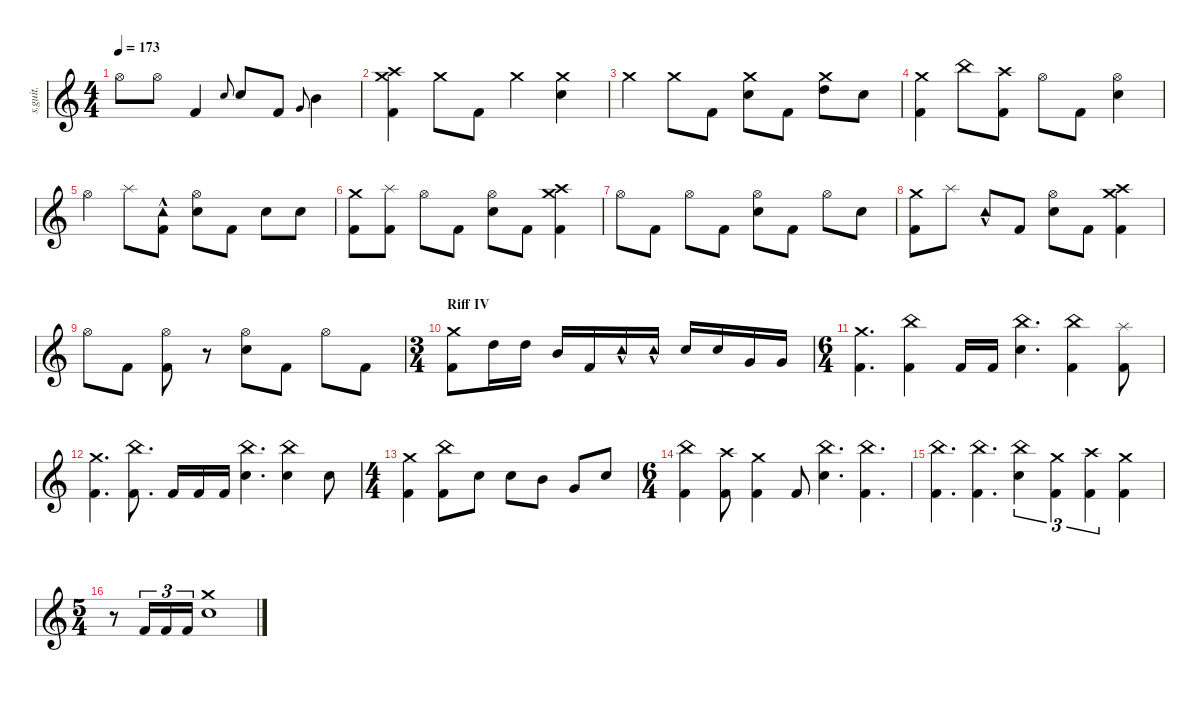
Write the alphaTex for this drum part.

\defaultSystemsLayout 4
\hideDynamics
\bracketExtendMode nobrackets
\track ("II" "s.guit.") {instrument percussion}
\staff {score}
\articulation defaults
\ts (4 4)
\tempo 173
\clef g2
\ks c "Hi-Hat (open)".8{lyrics (0 "") lyrics (1 "") lyrics (2 "") lyrics (3 "") lyrics (4 "") dy mf} "Hi-Hat (open)".8{lyrics (0 "") lyrics (1 "") lyrics (2 "") lyrics (3 "") lyrics (4 "")} "Kick (hit) 2".4{lyrics (0 "") lyrics (1 "") lyrics (2 "") lyrics (3 "") lyrics (4 "")} "Snare (hit) 2".8{lyrics (0 "") lyrics (1 "") lyrics (2 "") lyrics (3 "") lyrics (4 "") gr onbeat} "Snare (hit) 2".8{lyrics (0 "") lyrics (1 "") lyrics (2 "") lyrics (3 "") lyrics (4 "")} "Kick (hit) 2".8{lyrics (0 "") lyrics (1 "") lyrics (2 "") lyrics (3 "") lyrics (4 "")} "Very Low Tom (hit)".8{lyrics (0 "") lyrics (1 "") lyrics (2 "") lyrics (3 "") lyrics (4 "") gr onbeat} "Mid Tom (hit)".4{lyrics (0 "") lyrics (1 "") lyrics (2 "") lyrics (3 "") lyrics (4 "")}
|
("Kick (hit) 2" "Crash high (hit)" "Crash medium (hit)").4{lyrics (0 "") lyrics (1 "") lyrics (2 "") lyrics (3 "") lyrics (4 "")} "Crash medium (hit)".8{lyrics (0 "") lyrics (1 "") lyrics (2 "") lyrics (3 "") lyrics (4 "")} "Kick (hit) 2".8{lyrics (0 "") lyrics (1 "") lyrics (2 "") lyrics (3 "") lyrics (4 "")} "Crash medium (hit)".4{lyrics (0 "") lyrics (1 "") lyrics (2 "") lyrics (3 "") lyrics (4 "")} ("Snare (hit) 2" "Crash medium (hit)").4{lyrics (0 "") lyrics (1 "") lyrics (2 "") lyrics (3 "") lyrics (4 "")} |
"Crash medium (hit)".4{lyrics (0 "") lyrics (1 "") lyrics (2 "") lyrics (3 "") lyrics (4 "")} "Crash medium (hit)".8{lyrics (0 "") lyrics (1 "") lyrics (2 "") lyrics (3 "") lyrics (4 "")} "Kick (hit) 2".8{lyrics (0 "") lyrics (1 "") lyrics (2 "") lyrics (3 "") lyrics (4 "")} ("Crash medium (hit)" "Snare (hit) 2").8{lyrics (0 "") lyrics (1 "") lyrics (2 "") lyrics (3 "") lyrics (4 "")} "Kick (hit) 2".8{lyrics (0 "") lyrics (1 "") lyrics (2 "") lyrics (3 "") lyrics (4 "")} ("Crash medium (hit)" "High Tom (hit)").8{lyrics (0 "") lyrics (1 "") lyrics (2 "") lyrics (3 "") lyrics (4 "")} "Snare (hit) 2".8{lyrics (0 "") lyrics (1 "") lyrics (2 "") lyrics (3 "") lyrics (4 "")} |
("Kick (hit) 2" "Crash medium (hit)").4{lyrics (0 "") lyrics (1 "") lyrics (2 "") lyrics (3 "") lyrics (4 "")} "China (hit)".8{lyrics (0 "") lyrics (1 "") lyrics (2 "") lyrics (3 "") lyrics (4 "")} ("Kick (hit) 2" "Crash high (hit)").8{lyrics (0 "") lyrics (1 "") lyrics (2 "") lyrics (3 "") lyrics (4 "")} "Hi-Hat (open)".8{lyrics (0 "") lyrics (1 "") lyrics (2 "") lyrics (3 "") lyrics (4 "")} "Kick (hit) 2".8{lyrics (0 "") lyrics (1 "") lyrics (2 "") lyrics (3 "") lyrics (4 "")} ("Snare (hit) 2" "Hi-Hat (open)").4{lyrics (0 "") lyrics (1 "") lyrics (2 "") lyrics (3 "") lyrics (4 "")} |
"Hi-Hat (open)".4{lyrics (0 "") lyrics (1 "") lyrics (2 "") lyrics (3 "") lyrics (4 "")} "Splash (hit)".8{lyrics (0 "") lyrics (1 "") lyrics (2 "") lyrics (3 "") lyrics (4 "")} ("Kick (hit) 2" "Tambourine (hit)"{hac}).8{lyrics (0 "") lyrics (1 "") lyrics (2 "") lyrics (3 "") lyrics (4 "")} ("Snare (hit) 2" "Hi-Hat (open)").8{lyrics (0 "") lyrics (1 "") lyrics (2 "") lyrics (3 "") lyrics (4 "")} "Kick (hit) 2".8{lyrics (0 "") lyrics (1 "") lyrics (2 "") lyrics (3 "") lyrics (4 "")} "Snare (hit) 2".8{lyrics (0 "") lyrics (1 "") lyrics (2 "") lyrics (3 "") lyrics (4 "")} "Snare (hit) 2".8{lyrics (0 "") lyrics (1 "") lyrics (2 "") lyrics (3 "") lyrics (4 "")} |
("Kick (hit) 2" "Crash medium (hit)").8{lyrics (0 "") lyrics (1 "") lyrics (2 "") lyrics (3 "") lyrics (4 "")} ("Splash (hit)" "Kick (hit) 2").8{lyrics (0 "") lyrics (1 "") lyrics (2 "") lyrics (3 "") lyrics (4 "")} "Hi-Hat (open)".8{lyrics (0 "") lyrics (1 "") lyrics (2 "") lyrics (3 "") lyrics (4 "")} "Kick (hit) 2".8{lyrics (0 "") lyrics (1 "") lyrics (2 "") lyrics (3 "") lyrics (4 "")} ("Snare (hit) 2" "Hi-Hat (open)").8{lyrics (0 "") lyrics (1 "") lyrics (2 "") lyrics (3 "") lyrics (4 "")} "Kick (hit) 2".8{lyrics (0 "") lyrics (1 "") lyrics (2 "") lyrics (3 "") lyrics (4 "")} ("Kick (hit) 2" "Crash high (hit)" "Crash medium (hit)").4{lyrics (0 "") lyrics (1 "") lyrics (2 "") lyrics (3 "") lyrics (4 "")} |
"Hi-Hat (open)".8{lyrics (0 "") lyrics (1 "") lyrics (2 "") lyrics (3 "") lyrics (4 "")} "Kick (hit) 2".8{lyrics (0 "") lyrics (1 "") lyrics (2 "") lyrics (3 "") lyrics (4 "")} "Hi-Hat (open)".8{lyrics (0 "") lyrics (1 "") lyrics (2 "") lyrics (3 "") lyrics (4 "")} "Kick (hit) 2".8{lyrics (0 "") lyrics (1 "") lyrics (2 "") lyrics (3 "") lyrics (4 "")} ("Hi-Hat (open)" "Snare (hit) 2").8{lyrics (0 "") lyrics (1 "") lyrics (2 "") lyrics (3 "") lyrics (4 "")} "Kick (hit) 2".8{lyrics (0 "") lyrics (1 "") lyrics (2 "") lyrics (3 "") lyrics (4 "")} "Hi-Hat (open)".8{lyrics (0 "") lyrics (1 "") lyrics (2 "") lyrics (3 "") lyrics (4 "")} "Snare (hit) 2".8{lyrics (0 "") lyrics (1 "") lyrics (2 "") lyrics (3 "") lyrics (4 "")} |
("Kick (hit) 2" "Crash medium (hit)").8{lyrics (0 "") lyrics (1 "") lyrics (2 "") lyrics (3 "") lyrics (4 "")} "Splash (hit)".8{lyrics (0 "") lyrics (1 "") lyrics (2 "") lyrics (3 "") lyrics (4 "")} "Tambourine (hit)"{hac}.8{lyrics (0 "") lyrics (1 "") lyrics (2 "") lyrics (3 "") lyrics (4 "")} "Kick (hit) 2".8{lyrics (0 "") lyrics (1 "") lyrics (2 "") lyrics (3 "") lyrics (4 "")} ("Snare (hit) 2" "Hi-Hat (open)").8{lyrics (0 "") lyrics (1 "") lyrics (2 "") lyrics (3 "") lyrics (4 "")} "Kick (hit) 2".8{lyrics (0 "") lyrics (1 "") lyrics (2 "") lyrics (3 "") lyrics (4 "")} ("Kick (hit) 2" "Crash high (hit)" "Crash medium (hit)").4{lyrics (0 "") lyrics (1 "") lyrics (2 "") lyrics (3 "") lyrics (4 "")} |
"Hi-Hat (open)".8{lyrics (0 "") lyrics (1 "") lyrics (2 "") lyrics (3 "") lyrics (4 "")} "Kick (hit) 2".8{lyrics (0 "") lyrics (1 "") lyrics (2 "") lyrics (3 "") lyrics (4 "")} ("Hi-Hat (open)" "Kick (hit) 2").8{lyrics (0 "") lyrics (1 "") lyrics (2 "") lyrics (3 "") lyrics (4 "")} r.8 ("Hi-Hat (open)" "Snare (hit) 2").8{lyrics (0 "") lyrics (1 "") lyrics (2 "") lyrics (3 "") lyrics (4 "")} "Kick (hit) 2".8{lyrics (0 "") lyrics (1 "") lyrics (2 "") lyrics (3 "") lyrics (4 "")} "Hi-Hat (open)".8{lyrics (0 "") lyrics (1 "") lyrics (2 "") lyrics (3 "") lyrics (4 "")} "Kick (hit) 2".8{lyrics (0 "") lyrics (1 "") lyrics (2 "") lyrics (3 "") lyrics (4 "")} |
\ts (3 4)
\beaming (8 2 2 2 2)
\section ("" "Riff IV")
("Kick (hit) 2" "Crash medium (hit)").8{lyrics (0 "") lyrics (1 "") lyrics (2 "") lyrics (3 "") lyrics (4 "")} "High Tom (hit)".16{lyrics (0 "") lyrics (1 "") lyrics (2 "") lyrics (3 "") lyrics (4 "")} "High Tom (hit)".16{lyrics (0 "") lyrics (1 "") lyrics (2 "") lyrics (3 "") lyrics (4 "")} "Mid Tom (hit)".16{lyrics (0 "") lyrics (1 "") lyrics (2 "") lyrics (3 "") lyrics (4 "")} "Kick (hit) 2".16{lyrics (0 "") lyrics (1 "") lyrics (2 "") lyrics (3 "") lyrics (4 "")} "Tambourine (hit)"{hac}.16{lyrics (0 "") lyrics (1 "") lyrics (2 "") lyrics (3 "") lyrics (4 "")} "Tambourine (hit)"{hac}.16{lyrics (0 "") lyrics (1 "") lyrics (2 "") lyrics (3 "") lyrics (4 "")} "Snare (hit) 2".16{lyrics (0 "") lyrics (1 "") lyrics (2 "") lyrics (3 "") lyrics (4 "")} "Snare (hit) 2".16{lyrics (0 "") lyrics (1 "") lyrics (2 "") lyrics (3 "") lyrics (4 "")} "Very Low Tom (hit)".16{lyrics (0 "") lyrics (1 "") lyrics (2 "") lyrics (3 "") lyrics (4 "")} "Very Low Tom (hit)".16{lyrics (0 "") lyrics (1 "") lyrics (2 "") lyrics (3 "") lyrics (4 "")} |
\ts (6 4)
\beaming (8 2 2 2 2)
("Kick (hit) 2" "Crash medium (hit)").4{d lyrics (0 "") lyrics (1 "") lyrics (2 "") lyrics (3 "") lyrics (4 "")} ("Kick (hit) 2" "China (hit)").4{lyrics (0 "") lyrics (1 "") lyrics (2 "") lyrics (3 "") lyrics (4 "")} "Kick (hit) 2".16{lyrics (0 "") lyrics (1 "") lyrics (2 "") lyrics (3 "") lyrics (4 "")} "Kick (hit) 2".16{lyrics (0 "") lyrics (1 "") lyrics (2 "") lyrics (3 "") lyrics (4 "")} ("China (hit)" "Snare (hit) 2").4{d lyrics (0 "") lyrics (1 "") lyrics (2 "") lyrics (3 "") lyrics (4 "")} ("Kick (hit) 2" "China (hit)").4{lyrics (0 "") lyrics (1 "") lyrics (2 "") lyrics (3 "") lyrics (4 "")} ("Splash (hit)" "Kick (hit) 2").8{lyrics (0 "") lyrics (1 "") lyrics (2 "") lyrics (3 "") lyrics (4 "")} |
("Kick (hit) 2" "Crash medium (hit)").4{d lyrics (0 "") lyrics (1 "") lyrics (2 "") lyrics (3 "") lyrics (4 "")} ("Kick (hit) 2" "China (hit)").8{d lyrics (0 "") lyrics (1 "") lyrics (2 "") lyrics (3 "") lyrics (4 "")} "Kick (hit) 2".16{lyrics (0 "") lyrics (1 "") lyrics (2 "") lyrics (3 "") lyrics (4 "")} "Kick (hit) 2".16{lyrics (0 "") lyrics (1 "") lyrics (2 "") lyrics (3 "") lyrics (4 "")} "Kick (hit) 2".16{lyrics (0 "") lyrics (1 "") lyrics (2 "") lyrics (3 "") lyrics (4 "")} ("China (hit)" "Snare (hit) 2").4{d lyrics (0 "") lyrics (1 "") lyrics (2 "") lyrics (3 "") lyrics (4 "")} ("China (hit)" "Snare (hit) 2").4{lyrics (0 "") lyrics (1 "") lyrics (2 "") lyrics (3 "") lyrics (4 "")} "Snare (hit) 2".8{lyrics (0 "") lyrics (1 "") lyrics (2 "") lyrics (3 "") lyrics (4 "")} |
\ts (4 4)
\beaming (8 2 2 2 2)
("Kick (hit) 2" "Crash medium (hit)").4{lyrics (0 "") lyrics (1 "") lyrics (2 "") lyrics (3 "") lyrics (4 "")} ("Kick (hit) 2" "China (hit)").8{lyrics (0 "") lyrics (1 "") lyrics (2 "") lyrics (3 "") lyrics (4 "")} "Snare (hit) 2".8{lyrics (0 "") lyrics (1 "") lyrics (2 "") lyrics (3 "") lyrics (4 "")} "Snare (hit) 2".8{lyrics (0 "") lyrics (1 "") lyrics (2 "") lyrics (3 "") lyrics (4 "")} "Mid Tom (hit)".8{lyrics (0 "") lyrics (1 "") lyrics (2 "") lyrics (3 "") lyrics (4 "")} "Very Low Tom (hit)".8{lyrics (0 "") lyrics (1 "") lyrics (2 "") lyrics (3 "") lyrics (4 "")} "Snare (hit) 2".8{lyrics (0 "") lyrics (1 "") lyrics (2 "") lyrics (3 "") lyrics (4 "")} |
\ts (6 4)
\beaming (8 2 2 2 2)
("Kick (hit) 2" "China (hit)").4{lyrics (0 "") lyrics (1 "") lyrics (2 "") lyrics (3 "") lyrics (4 "")} ("Crash high (hit)" "Kick (hit) 2").8{lyrics (0 "") lyrics (1 "") lyrics (2 "") lyrics (3 "") lyrics (4 "")} ("Kick (hit) 2" "Crash medium (hit)").4{lyrics (0 "") lyrics (1 "") lyrics (2 "") lyrics (3 "") lyrics (4 "")} "Kick (hit) 2".8{lyrics (0 "") lyrics (1 "") lyrics (2 "") lyrics (3 "") lyrics (4 "")} ("China (hit)" "Snare (hit) 2").4{d lyrics (0 "") lyrics (1 "") lyrics (2 "") lyrics (3 "") lyrics (4 "")} ("Kick (hit) 2" "China (hit)").4{d lyrics (0 "") lyrics (1 "") lyrics (2 "") lyrics (3 "") lyrics (4 "")} |
("China (hit)" "Kick (hit) 2").4{d lyrics (0 "") lyrics (1 "") lyrics (2 "") lyrics (3 "") lyrics (4 "")} ("Kick (hit) 2" "China (hit)").4{d lyrics (0 "") lyrics (1 "") lyrics (2 "") lyrics (3 "") lyrics (4 "")} ("Snare (hit) 2" "China (hit)").4{tu (3 2) lyrics (0 "") lyrics (1 "") lyrics (2 "") lyrics (3 "") lyrics (4 "")} ("Kick (hit) 2" "Crash medium (hit)").4{tu (3 2) lyrics (0 "") lyrics (1 "") lyrics (2 "") lyrics (3 "") lyrics (4 "")} ("Kick (hit) 2" "Crash high (hit)").4{tu (3 2) lyrics (0 "") lyrics (1 "") lyrics (2 "") lyrics (3 "") lyrics (4 "")} ("Kick (hit) 2" "Crash medium (hit)").4{lyrics (0 "") lyrics (1 "") lyrics (2 "") lyrics (3 "") lyrics (4 "")} |
\ts (5 4)
\beaming (8 2 2 2 2)
r.8 "Kick (hit) 2".16{tu (3 2) lyrics (0 "") lyrics (1 "") lyrics (2 "") lyrics (3 "") lyrics (4 "")} "Kick (hit) 2".16{tu (3 2) lyrics (0 "") lyrics (1 "") lyrics (2 "") lyrics (3 "") lyrics (4 "")} "Kick (hit) 2".16{tu (3 2) lyrics (0 "") lyrics (1 "") lyrics (2 "") lyrics (3 "") lyrics (4 "")} ("Snare (hit) 2" "Crash medium (hit)").1{lyrics (0 "") lyrics (1 "") lyrics (2 "") lyrics (3 "") lyrics (4 "")}
